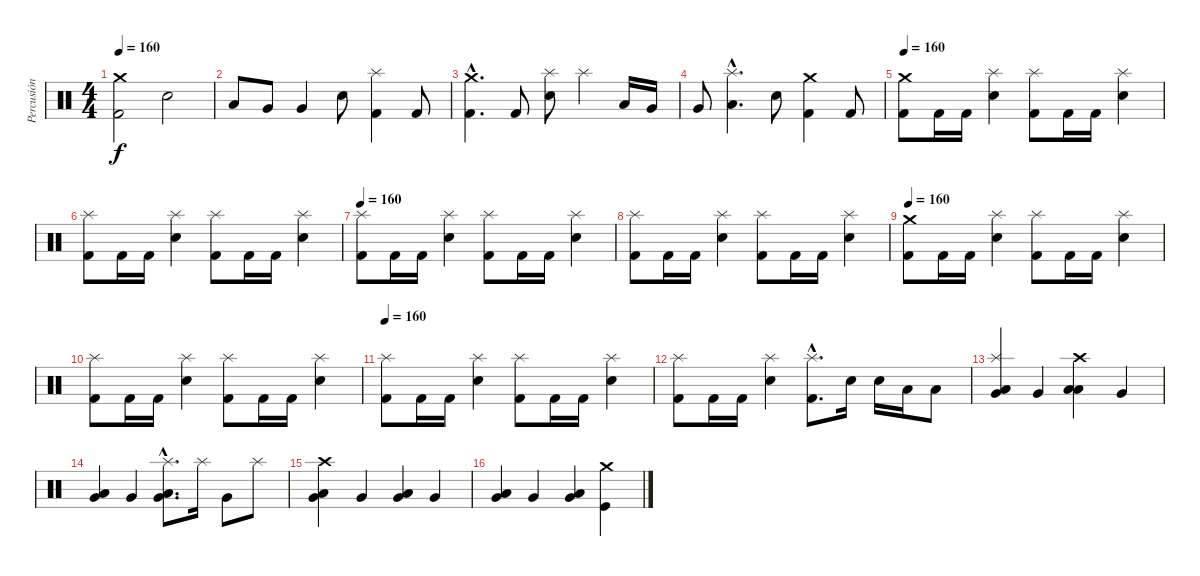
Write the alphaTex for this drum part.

\track ("Percusión" "Percusión") {instrument percussion}
\staff {score}
\articulation defaults
\ts (4 4)
\tempo 160
\clef neutral
\ks c
("Crash medium (hit)" "Kick (hit) 2").2{dy f} "Electric Snare (hit)".2 |
"Low Tom (hit)".8 "Very Low Tom (hit)".8 "Very Low Tom (hit)".4 "Electric Snare (hit)".8 ("Splash (hit)" "Kick (hit) 2").4 "Kick (hit) 2".8 |
("Crash medium (hit)"{hac} "Kick (hit) 2"{hac}).4{d} "Kick (hit) 2".8 ("Splash (hit)" "Electric Snare (hit)").8 "Splash (hit)".4 "Low Tom (hit)".16 "Very Low Tom (hit)".16 |
"Very Low Tom (hit)".8 ("Splash (hit)"{hac} "Low Tom (hit)"{hac}).4{d} "Electric Snare (hit)".8 ("Crash medium (hit)" "Kick (hit) 2").4 "Kick (hit) 2".8 |
\tempo 170
\tempo 160
("Kick (hit) 2" "Crash medium (hit)").8 "Kick (hit) 2".16 "Kick (hit) 2".16 ("Electric Snare (hit)" "Splash (hit)").4 ("Kick (hit) 2" "Splash (hit)").8 "Kick (hit) 2".16 "Kick (hit) 2".16 ("Electric Snare (hit)" "Splash (hit)").4 |
("Kick (hit) 2" "Splash (hit)").8 "Kick (hit) 2".16 "Kick (hit) 2".16 ("Electric Snare (hit)" "Splash (hit)").4 ("Kick (hit) 2" "Splash (hit)").8 "Kick (hit) 2".16 "Kick (hit) 2".16 ("Electric Snare (hit)" "Splash (hit)").4 |
\tempo 160
("Kick (hit) 2" "Splash (hit)").8 "Kick (hit) 2".16 "Kick (hit) 2".16 ("Electric Snare (hit)" "Splash (hit)").4 ("Kick (hit) 2" "Splash (hit)").8 "Kick (hit) 2".16 "Kick (hit) 2".16 ("Electric Snare (hit)" "Splash (hit)").4 |
("Kick (hit) 2" "Splash (hit)").8 "Kick (hit) 2".16 "Kick (hit) 2".16 ("Electric Snare (hit)" "Splash (hit)").4 ("Kick (hit) 2" "Splash (hit)").8 "Kick (hit) 2".16 "Kick (hit) 2".16 ("Electric Snare (hit)" "Splash (hit)").4 |
\tempo 160
("Kick (hit) 2" "Crash medium (hit)").8 "Kick (hit) 2".16 "Kick (hit) 2".16 ("Electric Snare (hit)" "Splash (hit)").4 ("Kick (hit) 2" "Splash (hit)").8 "Kick (hit) 2".16 "Kick (hit) 2".16 ("Electric Snare (hit)" "Splash (hit)").4 |
("Kick (hit) 2" "Splash (hit)").8 "Kick (hit) 2".16 "Kick (hit) 2".16 ("Electric Snare (hit)" "Splash (hit)").4 ("Kick (hit) 2" "Splash (hit)").8 "Kick (hit) 2".16 "Kick (hit) 2".16 ("Electric Snare (hit)" "Splash (hit)").4 |
\tempo 160
("Kick (hit) 2" "Splash (hit)").8 "Kick (hit) 2".16 "Kick (hit) 2".16 ("Electric Snare (hit)" "Splash (hit)").4 ("Kick (hit) 2" "Splash (hit)").8 "Kick (hit) 2".16 "Kick (hit) 2".16 ("Electric Snare (hit)" "Splash (hit)").4 |
("Kick (hit) 2" "Splash (hit)").8 "Kick (hit) 2".16 "Kick (hit) 2".16 ("Electric Snare (hit)" "Splash (hit)").4 ("Kick (hit) 2"{hac} "Splash (hit)"{hac}).8{d} "Electric Snare (hit)".16 "Electric Snare (hit)".16 "Low Tom (hit)".16 "Low Tom (hit)".8 |
("Splash (hit)" "Low Floor Tom (hit)" "Very Low Tom (hit)").4 "Very Low Tom (hit)".4 ("Crash high (hit)" "Low Floor Tom (hit)" "Low Tom (hit)").4 "Very Low Tom (hit)".4 |
("Low Floor Tom (hit)" "Very Low Tom (hit)").4 "Very Low Tom (hit)".4 ("Splash (hit)"{hac} "Low Tom (hit)"{hac} "Very Low Tom (hit)"{hac}).8{d} "Splash (hit)".16 "Very Low Tom (hit)".8 "Splash (hit)".8 |
("Crash high (hit)" "Low Floor Tom (hit)" "Very Low Tom (hit)").4 "Very Low Tom (hit)".4 ("Low Tom (hit)" "Very Low Tom (hit)").4 "Very Low Tom (hit)".4 |
("Low Floor Tom (hit)" "Very Low Tom (hit)").4 "Very Low Tom (hit)".4 ("Low Tom (hit)" "Very Low Tom (hit)").4 ("Crash medium (hit)" "Kick (hit)").4
